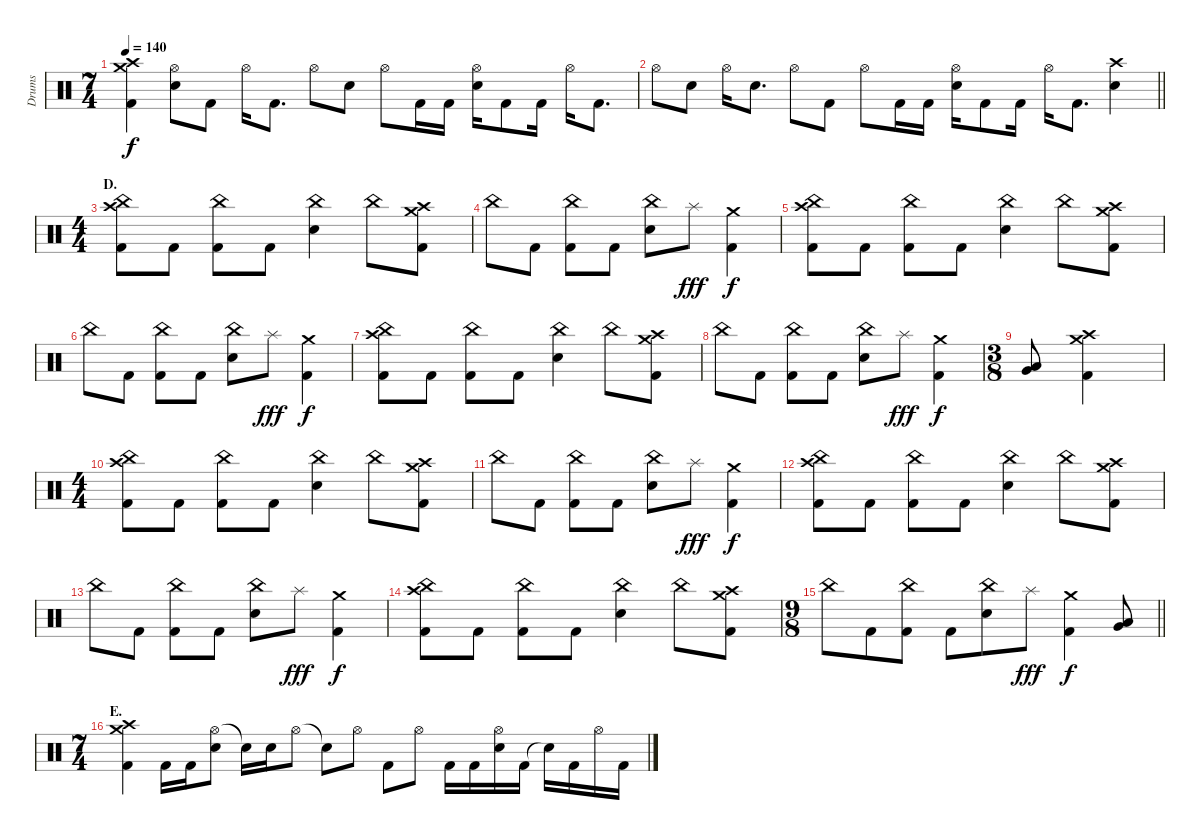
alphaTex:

\track ("Drums" "Drums") {instrument percussion}
\staff {score}
\articulation defaults
\ts (7 4)
\tempo 140
\clef neutral
\ks c
("Crash medium (hit)" "Crash high (hit)" "Kick (hit) 2").4{dy f} ("Hi-Hat (open)" "Electric Snare (hit)").8 "Kick (hit) 2".8 "Hi-Hat (open)".16 "Kick (hit) 2".8{d} "Hi-Hat (open)".8 "Electric Snare (hit)".8 "Hi-Hat (open)".8 "Kick (hit) 2".16 "Kick (hit) 2".16 ("Hi-Hat (open)" "Electric Snare (hit)").16 "Kick (hit) 2".8 "Kick (hit) 2".16 "Hi-Hat (open)".16 "Kick (hit) 2".8{d} |
\barLineRight lightlight "Hi-Hat (open)".8 "Electric Snare (hit)".8 "Hi-Hat (open)".16 "Electric Snare (hit)".8{d} "Hi-Hat (open)".8 "Kick (hit) 2".8 "Hi-Hat (open)".8 "Kick (hit) 2".16 "Kick (hit) 2".16
("Hi-Hat (open)" "Electric Snare (hit)").16 "Kick (hit) 2".8 "Kick (hit) 2".16 "Hi-Hat (open)".16 "Kick (hit) 2".8{d} ("Crash high (hit)" "Electric Snare (hit)").4 |
\ts (4 4)
\section ("" "D.")
("China (hit)" "Crash high (hit)" "Kick (hit) 2").8 "Kick (hit) 2".8 ("China (hit)" "Kick (hit) 2").8 "Kick (hit) 2".8 ("China (hit)" "Electric Snare (hit)").4 "China (hit)".8 ("Crash medium (hit)" "Crash high (hit)" "Kick (hit) 2").8 |
"China (hit)".8 "Kick (hit) 2".8 ("China (hit)" "Kick (hit) 2").8 "Kick (hit) 2".8 ("China (hit)" "Electric Snare (hit)").8 "Splash (hit)".8{dy fff} ("Crash medium (hit)" "Kick (hit) 2").4{dy f} |
("China (hit)" "Crash high (hit)" "Kick (hit) 2").8 "Kick (hit) 2".8 ("China (hit)" "Kick (hit) 2").8 "Kick (hit) 2".8 ("China (hit)" "Electric Snare (hit)").4 "China (hit)".8 ("Crash medium (hit)" "Crash high (hit)" "Kick (hit) 2").8 |
"China (hit)".8 "Kick (hit) 2".8 ("China (hit)" "Kick (hit) 2").8 "Kick (hit) 2".8 ("China (hit)" "Electric Snare (hit)").8 "Splash (hit)".8{dy fff} ("Crash medium (hit)" "Kick (hit) 2").4{dy f} |
("China (hit)" "Crash high (hit)" "Kick (hit) 2").8 "Kick (hit) 2".8 ("China (hit)" "Kick (hit) 2").8 "Kick (hit) 2".8 ("China (hit)" "Electric Snare (hit)").4 "China (hit)".8 ("Crash medium (hit)" "Crash high (hit)" "Kick (hit) 2").8 |
"China (hit)".8 "Kick (hit) 2".8 ("China (hit)" "Kick (hit) 2").8 "Kick (hit) 2".8 ("China (hit)" "Electric Snare (hit)").8 "Splash (hit)".8{dy fff} ("Crash medium (hit)" "Kick (hit) 2").4{dy f} |
\ts (3 8)
("Low Tom (hit)" "Very Low Tom (hit)").8{bu 120} ("Crash medium (hit)" "Crash high (hit)" "Kick (hit) 2").4 |
\ts (4 4)
("China (hit)" "Crash high (hit)" "Kick (hit) 2").8 "Kick (hit) 2".8 ("China (hit)" "Kick (hit) 2").8 "Kick (hit) 2".8 ("China (hit)" "Electric Snare (hit)").4 "China (hit)".8 ("Crash medium (hit)" "Crash high (hit)" "Kick (hit) 2").8 |
"China (hit)".8 "Kick (hit) 2".8 ("China (hit)" "Kick (hit) 2").8 "Kick (hit) 2".8 ("China (hit)" "Electric Snare (hit)").8 "Splash (hit)".8{dy fff} ("Crash medium (hit)" "Kick (hit) 2").4{dy f} |
("China (hit)" "Crash high (hit)" "Kick (hit) 2").8 "Kick (hit) 2".8 ("China (hit)" "Kick (hit) 2").8 "Kick (hit) 2".8 ("China (hit)" "Electric Snare (hit)").4 "China (hit)".8 ("Crash medium (hit)" "Crash high (hit)" "Kick (hit) 2").8 |
"China (hit)".8 "Kick (hit) 2".8 ("China (hit)" "Kick (hit) 2").8 "Kick (hit) 2".8 ("China (hit)" "Electric Snare (hit)").8 "Splash (hit)".8{dy fff} ("Crash medium (hit)" "Kick (hit) 2").4{dy f} |
("China (hit)" "Crash high (hit)" "Kick (hit) 2").8 "Kick (hit) 2".8 ("China (hit)" "Kick (hit) 2").8 "Kick (hit) 2".8 ("China (hit)" "Electric Snare (hit)").4 "China (hit)".8 ("Crash medium (hit)" "Crash high (hit)" "Kick (hit) 2").8 |
\ts (9 8)
\barLineRight lightlight "China (hit)".8 "Kick (hit) 2".8
("China (hit)" "Kick (hit) 2").8 "Kick (hit) 2".8 ("China (hit)" "Electric Snare (hit)").8 "Splash (hit)".8{dy fff} ("Crash medium (hit)" "Kick (hit) 2").4{dy f} ("Low Tom (hit)" "Very Low Tom (hit)").8{bu 120} |
\ts (7 4)
\section ("" "E.")
("Crash medium (hit)" "Crash high (hit)" "Kick (hit) 2").4 "Kick (hit) 2".16 "Kick (hit) 2".16 ("Hi-Hat (open)" "Electric Snare (hit)").8 "Snare (hit)"{t}.16 "Electric Snare (hit)".16 "Hi-Hat (open)".8 "Snare (hit)"{t}.8 "Hi-Hat (open)".8 "Kick (hit) 2".8 "Hi-Hat (open)".8 "Kick (hit) 2".16 "Kick (hit) 2".16 ("Hi-Hat (open)" "Electric Snare (hit)").16 "Kick (hit) 2".16 "Snare (hit)"{t}.16 "Kick (hit) 2".16 "Hi-Hat (open)".16 "Kick (hit) 2".16
